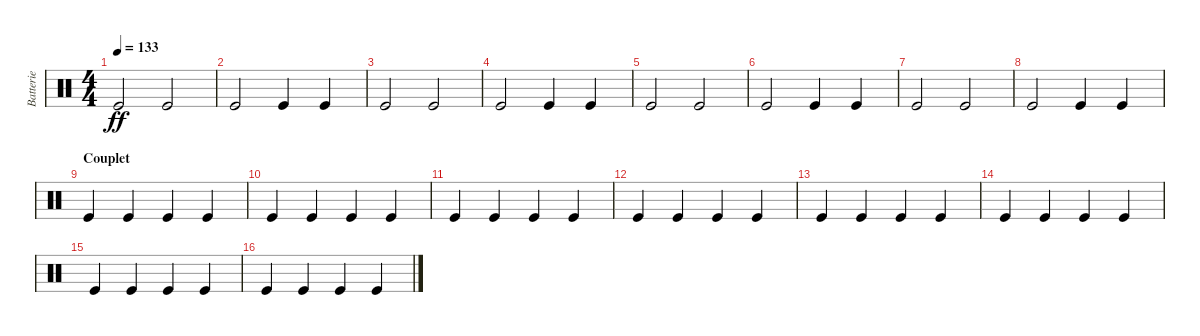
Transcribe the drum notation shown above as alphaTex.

\track ("Batterie" "Batterie") {instrument percussion}
\staff {score}
\articulation defaults
\ts (4 4)
\tempo 133
\clef neutral
\ks c "Kick (hit)".2{dy ff} "Kick (hit)".2
|
"Kick (hit)".2 "Kick (hit)".4 "Kick (hit)".4 |
"Kick (hit)".2 "Kick (hit)".2 |
"Kick (hit)".2 "Kick (hit)".4 "Kick (hit)".4 |
"Kick (hit)".2 "Kick (hit)".2 |
"Kick (hit)".2 "Kick (hit)".4 "Kick (hit)".4 |
"Kick (hit)".2 "Kick (hit)".2 |
"Kick (hit)".2 "Kick (hit)".4 "Kick (hit)".4 |
\section ("" "Couplet")
"Kick (hit)".4 "Kick (hit)".4 "Kick (hit)".4 "Kick (hit)".4 |
"Kick (hit)".4 "Kick (hit)".4 "Kick (hit)".4 "Kick (hit)".4 |
"Kick (hit)".4 "Kick (hit)".4 "Kick (hit)".4 "Kick (hit)".4 |
"Kick (hit)".4 "Kick (hit)".4 "Kick (hit)".4 "Kick (hit)".4 |
"Kick (hit)".4 "Kick (hit)".4 "Kick (hit)".4 "Kick (hit)".4 |
"Kick (hit)".4 "Kick (hit)".4 "Kick (hit)".4 "Kick (hit)".4 |
"Kick (hit)".4 "Kick (hit)".4 "Kick (hit)".4 "Kick (hit)".4 |
"Kick (hit)".4 "Kick (hit)".4 "Kick (hit)".4 "Kick (hit)".4
